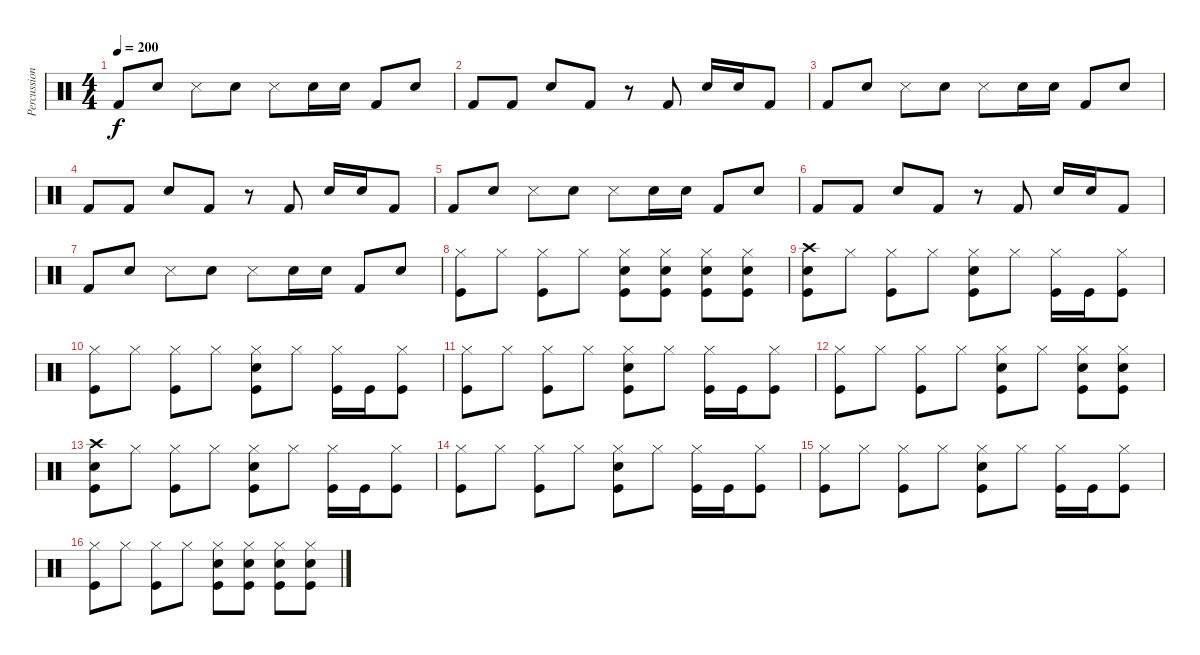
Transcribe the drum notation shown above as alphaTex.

\track ("Percussion" "Percussion") {instrument percussion}
\staff {score}
\articulation defaults
\ts (4 4)
\tempo 200
\clef neutral
\ks c "Kick (hit) 2".8{dy f} "Electric Snare (hit)".8 "Snare (side stick) 3".8 "Electric Snare (hit)".8 "Snare (side stick) 3".8 "Electric Snare (hit)".16 "Electric Snare (hit)".16 "Kick (hit) 2".8 "Electric Snare (hit)".8
|
"Kick (hit) 2".8 "Kick (hit) 2".8 "Electric Snare (hit)".8 "Kick (hit) 2".8 r.8 "Kick (hit) 2".8 "Electric Snare (hit)".16 "Electric Snare (hit)".16 "Kick (hit) 2".8 |
"Kick (hit) 2".8 "Electric Snare (hit)".8 "Snare (side stick) 3".8 "Electric Snare (hit)".8 "Snare (side stick) 3".8 "Electric Snare (hit)".16 "Electric Snare (hit)".16 "Kick (hit) 2".8 "Electric Snare (hit)".8 |
"Kick (hit) 2".8 "Kick (hit) 2".8 "Electric Snare (hit)".8 "Kick (hit) 2".8 r.8 "Kick (hit) 2".8 "Electric Snare (hit)".16 "Electric Snare (hit)".16 "Kick (hit) 2".8 |
"Kick (hit) 2".8 "Electric Snare (hit)".8 "Snare (side stick) 3".8 "Electric Snare (hit)".8 "Snare (side stick) 3".8 "Electric Snare (hit)".16 "Electric Snare (hit)".16 "Kick (hit) 2".8 "Electric Snare (hit)".8 |
"Kick (hit) 2".8 "Kick (hit) 2".8 "Electric Snare (hit)".8 "Kick (hit) 2".8 r.8 "Kick (hit) 2".8 "Electric Snare (hit)".16 "Electric Snare (hit)".16 "Kick (hit) 2".8 |
"Kick (hit) 2".8 "Electric Snare (hit)".8 "Snare (side stick) 3".8 "Electric Snare (hit)".8 "Snare (side stick) 3".8 "Electric Snare (hit)".16 "Electric Snare (hit)".16 "Kick (hit) 2".8 "Electric Snare (hit)".8 |
("Hi-Hat (closed)" "Kick (hit)").8 "Hi-Hat (closed)".8 ("Hi-Hat (closed)" "Kick (hit)").8 "Hi-Hat (closed)".8 ("Hi-Hat (closed)" "Snare (hit) 2" "Kick (hit)").8 ("Hi-Hat (closed)" "Snare (hit) 2" "Kick (hit)").8 ("Hi-Hat (closed)" "Snare (hit) 2" "Kick (hit)").8 ("Hi-Hat (closed)" "Snare (hit) 2" "Kick (hit)").8 |
("Crash high (hit)" "Snare (hit) 2" "Kick (hit)").8 "Hi-Hat (closed)".8 ("Hi-Hat (closed)" "Kick (hit)").8 "Hi-Hat (closed)".8 ("Hi-Hat (closed)" "Snare (hit) 2" "Kick (hit)").8 "Hi-Hat (closed)".8 ("Hi-Hat (closed)" "Kick (hit)").16 "Kick (hit)".16 ("Hi-Hat (closed)" "Kick (hit)").8 |
("Hi-Hat (closed)" "Kick (hit)").8 "Hi-Hat (closed)".8 ("Hi-Hat (closed)" "Kick (hit)").8 "Hi-Hat (closed)".8 ("Hi-Hat (closed)" "Snare (hit) 2" "Kick (hit)").8 "Hi-Hat (closed)".8 ("Hi-Hat (closed)" "Kick (hit)").16 "Kick (hit)".16 ("Hi-Hat (closed)" "Kick (hit)").8 |
("Hi-Hat (closed)" "Kick (hit)").8 "Hi-Hat (closed)".8 ("Hi-Hat (closed)" "Kick (hit)").8 "Hi-Hat (closed)".8 ("Hi-Hat (closed)" "Snare (hit) 2" "Kick (hit)").8 "Hi-Hat (closed)".8 ("Hi-Hat (closed)" "Kick (hit)").16 "Kick (hit)".16 ("Hi-Hat (closed)" "Kick (hit)").8 |
("Hi-Hat (closed)" "Kick (hit)").8 "Hi-Hat (closed)".8 ("Hi-Hat (closed)" "Kick (hit)").8 "Hi-Hat (closed)".8 ("Hi-Hat (closed)" "Snare (hit) 2" "Kick (hit)").8 "Hi-Hat (closed)".8 ("Hi-Hat (closed)" "Snare (hit) 2" "Kick (hit)").8 ("Hi-Hat (closed)" "Snare (hit) 2" "Kick (hit)").8 |
("Crash high (hit)" "Snare (hit) 2" "Kick (hit)").8 "Hi-Hat (closed)".8 ("Hi-Hat (closed)" "Kick (hit)").8 "Hi-Hat (closed)".8 ("Hi-Hat (closed)" "Snare (hit) 2" "Kick (hit)").8 "Hi-Hat (closed)".8 ("Hi-Hat (closed)" "Kick (hit)").16 "Kick (hit)".16 ("Hi-Hat (closed)" "Kick (hit)").8 |
("Hi-Hat (closed)" "Kick (hit)").8 "Hi-Hat (closed)".8 ("Hi-Hat (closed)" "Kick (hit)").8 "Hi-Hat (closed)".8 ("Hi-Hat (closed)" "Snare (hit) 2" "Kick (hit)").8 "Hi-Hat (closed)".8 ("Hi-Hat (closed)" "Kick (hit)").16 "Kick (hit)".16 ("Hi-Hat (closed)" "Kick (hit)").8 |
("Hi-Hat (closed)" "Kick (hit)").8 "Hi-Hat (closed)".8 ("Hi-Hat (closed)" "Kick (hit)").8 "Hi-Hat (closed)".8 ("Hi-Hat (closed)" "Snare (hit) 2" "Kick (hit)").8 "Hi-Hat (closed)".8 ("Hi-Hat (closed)" "Kick (hit)").16 "Kick (hit)".16 ("Hi-Hat (closed)" "Kick (hit)").8 |
("Hi-Hat (closed)" "Kick (hit)").8 "Hi-Hat (closed)".8 ("Hi-Hat (closed)" "Kick (hit)").8 "Hi-Hat (closed)".8 ("Hi-Hat (closed)" "Snare (hit) 2" "Kick (hit)").8 ("Hi-Hat (closed)" "Snare (hit) 2" "Kick (hit)").8 ("Hi-Hat (closed)" "Snare (hit) 2" "Kick (hit)").8 ("Hi-Hat (closed)" "Snare (hit) 2" "Kick (hit)").8
